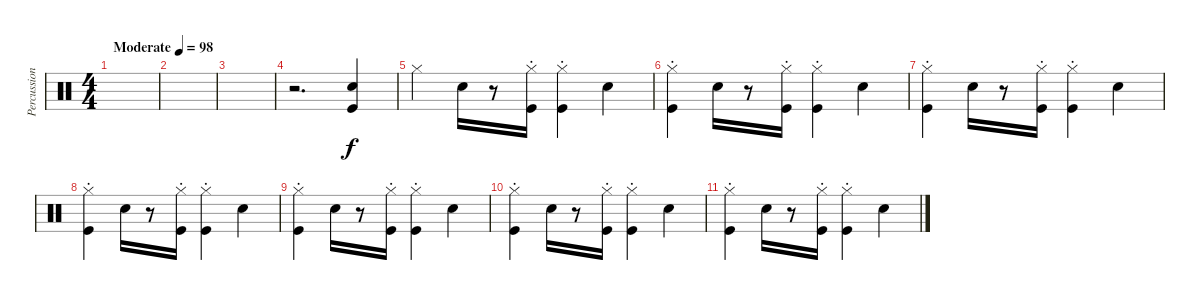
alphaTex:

\track ("Percussion" "Percussion") {instrument percussion}
\staff {score}
\articulation defaults
\ts (4 4)
\tempo (98 "Moderate")
\clef neutral
\ks c
|
|
|
r.2{d} ("Electric Snare (hit)" "Kick (hit)").4 |
"Hi-Hat (closed)".4 "Electric Snare (hit)".16 r.8 ("Hi-Hat (closed)" "Kick (hit)"{st}).16 ("Hi-Hat (closed)" "Kick (hit)"{st}).4 "Electric Snare (hit)".4 |
("Hi-Hat (closed)" "Kick (hit)"{st}).4 "Electric Snare (hit)".16 r.8 ("Hi-Hat (closed)" "Kick (hit)"{st}).16 ("Hi-Hat (closed)" "Kick (hit)"{st}).4 "Electric Snare (hit)".4 |
("Hi-Hat (closed)" "Kick (hit)"{st}).4 "Electric Snare (hit)".16 r.8 ("Hi-Hat (closed)" "Kick (hit)"{st}).16 ("Hi-Hat (closed)" "Kick (hit)"{st}).4 "Electric Snare (hit)".4 |
("Hi-Hat (closed)" "Kick (hit)"{st}).4 "Electric Snare (hit)".16 r.8 ("Hi-Hat (closed)" "Kick (hit)"{st}).16 ("Hi-Hat (closed)" "Kick (hit)"{st}).4 "Electric Snare (hit)".4 |
("Hi-Hat (closed)" "Kick (hit)"{st}).4 "Electric Snare (hit)".16 r.8 ("Hi-Hat (closed)" "Kick (hit)"{st}).16 ("Hi-Hat (closed)" "Kick (hit)"{st}).4 "Electric Snare (hit)".4 |
("Hi-Hat (closed)" "Kick (hit)"{st}).4 "Electric Snare (hit)".16 r.8 ("Hi-Hat (closed)" "Kick (hit)"{st}).16 ("Hi-Hat (closed)" "Kick (hit)"{st}).4 "Electric Snare (hit)".4 |
("Hi-Hat (closed)" "Kick (hit)"{st}).4 "Electric Snare (hit)".16 r.8 ("Hi-Hat (closed)" "Kick (hit)"{st}).16 ("Hi-Hat (closed)" "Kick (hit)"{st}).4 "Electric Snare (hit)".4
